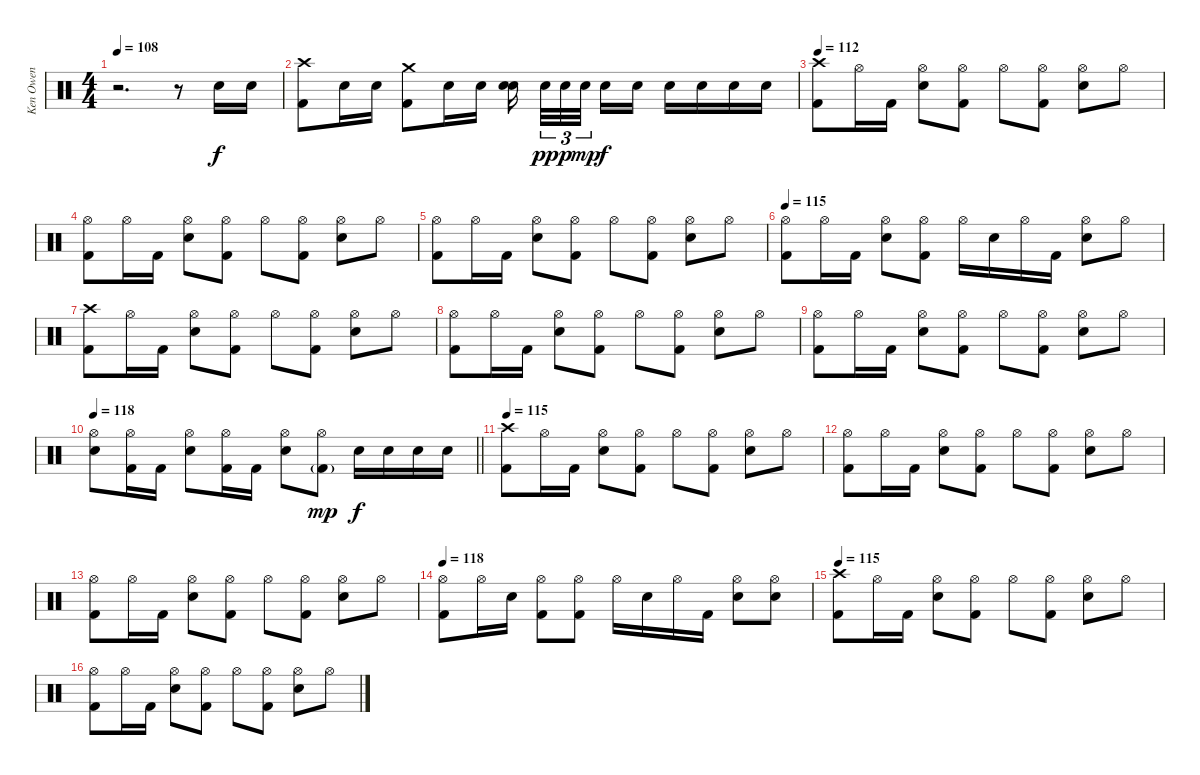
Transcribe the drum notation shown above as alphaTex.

\track ("Ken Owen" "Ken Owen") {instrument percussion}
\staff {score}
\articulation defaults
\ts (4 4)
\tempo 108
\clef neutral
\ks c
r.2{d dy f} r.8 "Electric Snare (hit)".16 "Electric Snare (hit)".16 |
("Crash high (hit)" "Kick (hit) 2").8 "Electric Snare (hit)".16 "Electric Snare (hit)".16 ("Crash medium (hit)" "Kick (hit) 2").8 "Electric Snare (hit)".16 "Electric Snare (hit)".16 ("Electric Snare (hit)" "Electric Snare (hit)").16 "Electric Snare (hit)".32{tu (3 2) dy pp} "Electric Snare (hit)".32{tu (3 2) dy p} "Electric Snare (hit)".32{tu (3 2) dy mp} "Electric Snare (hit)".16{dy f} "Electric Snare (hit)".16 "Electric Snare (hit)".16 "Electric Snare (hit)".16 "Electric Snare (hit)".16 "Electric Snare (hit)".16 |
\tempo 112
("Crash high (hit)" "Kick (hit) 2").8 "Hi-Hat (open)".16 "Kick (hit) 2".16 ("Hi-Hat (open)" "Electric Snare (hit)").8 ("Hi-Hat (open)" "Kick (hit) 2").8 "Hi-Hat (open)".8 ("Hi-Hat (open)" "Kick (hit) 2").8 ("Hi-Hat (open)" "Electric Snare (hit)").8 "Hi-Hat (open)".8 |
("Hi-Hat (open)" "Kick (hit) 2").8 "Hi-Hat (open)".16 "Kick (hit) 2".16 ("Hi-Hat (open)" "Electric Snare (hit)").8 ("Hi-Hat (open)" "Kick (hit) 2").8 "Hi-Hat (open)".8 ("Hi-Hat (open)" "Kick (hit) 2").8 ("Hi-Hat (open)" "Electric Snare (hit)").8 "Hi-Hat (open)".8 |
("Hi-Hat (open)" "Kick (hit) 2").8 "Hi-Hat (open)".16 "Kick (hit) 2".16 ("Hi-Hat (open)" "Electric Snare (hit)").8 ("Hi-Hat (open)" "Kick (hit) 2").8 "Hi-Hat (open)".8 ("Hi-Hat (open)" "Kick (hit) 2").8 ("Hi-Hat (open)" "Electric Snare (hit)").8 "Hi-Hat (open)".8 |
\tempo 115
("Hi-Hat (open)" "Kick (hit) 2").8 "Hi-Hat (open)".16 "Kick (hit) 2".16 ("Hi-Hat (open)" "Electric Snare (hit)").8 ("Hi-Hat (open)" "Kick (hit) 2").8 "Hi-Hat (open)".16 "Electric Snare (hit)".16 "Hi-Hat (open)".16 "Kick (hit) 2".16 ("Hi-Hat (open)" "Electric Snare (hit)").8 "Hi-Hat (open)".8 |
("Crash high (hit)" "Kick (hit) 2").8 "Hi-Hat (open)".16 "Kick (hit) 2".16 ("Hi-Hat (open)" "Electric Snare (hit)").8 ("Hi-Hat (open)" "Kick (hit) 2").8 "Hi-Hat (open)".8 ("Hi-Hat (open)" "Kick (hit) 2").8 ("Hi-Hat (open)" "Electric Snare (hit)").8 "Hi-Hat (open)".8 |
("Hi-Hat (open)" "Kick (hit) 2").8 "Hi-Hat (open)".16 "Kick (hit) 2".16 ("Hi-Hat (open)" "Electric Snare (hit)").8 ("Hi-Hat (open)" "Kick (hit) 2").8 "Hi-Hat (open)".8 ("Hi-Hat (open)" "Kick (hit) 2").8 ("Hi-Hat (open)" "Electric Snare (hit)").8 "Hi-Hat (open)".8 |
("Hi-Hat (open)" "Kick (hit) 2").8 "Hi-Hat (open)".16 "Kick (hit) 2".16 ("Hi-Hat (open)" "Electric Snare (hit)").8 ("Hi-Hat (open)" "Kick (hit) 2").8 "Hi-Hat (open)".8 ("Hi-Hat (open)" "Kick (hit) 2").8 ("Hi-Hat (open)" "Electric Snare (hit)").8 "Hi-Hat (open)".8 |
\tempo 118
\barLineRight lightlight
("Hi-Hat (open)" "Electric Snare (hit)").8 ("Hi-Hat (open)" "Kick (hit) 2").16 "Kick (hit) 2".16 ("Hi-Hat (open)" "Electric Snare (hit)").8 ("Hi-Hat (open)" "Kick (hit) 2").16 "Kick (hit) 2".16 ("Hi-Hat (open)" "Electric Snare (hit)").8 ("Hi-Hat (open)" "Kick (hit) 2"{g}).8{dy mp} "Electric Snare (hit)".16{dy f} "Electric Snare (hit)".16 "Electric Snare (hit)".16 "Electric Snare (hit)".16 |
\section ("" "")
\tempo 115
("Crash high (hit)" "Kick (hit) 2").8 "Hi-Hat (open)".16 "Kick (hit) 2".16 ("Hi-Hat (open)" "Electric Snare (hit)").8 ("Hi-Hat (open)" "Kick (hit) 2").8 "Hi-Hat (open)".8 ("Hi-Hat (open)" "Kick (hit) 2").8 ("Hi-Hat (open)" "Electric Snare (hit)").8 "Hi-Hat (open)".8 |
("Hi-Hat (open)" "Kick (hit) 2").8 "Hi-Hat (open)".16 "Kick (hit) 2".16 ("Hi-Hat (open)" "Electric Snare (hit)").8 ("Hi-Hat (open)" "Kick (hit) 2").8 "Hi-Hat (open)".8 ("Hi-Hat (open)" "Kick (hit) 2").8 ("Hi-Hat (open)" "Electric Snare (hit)").8 "Hi-Hat (open)".8 |
("Hi-Hat (open)" "Kick (hit) 2").8 "Hi-Hat (open)".16 "Kick (hit) 2".16 ("Hi-Hat (open)" "Electric Snare (hit)").8 ("Hi-Hat (open)" "Kick (hit) 2").8 "Hi-Hat (open)".8 ("Hi-Hat (open)" "Kick (hit) 2").8 ("Hi-Hat (open)" "Electric Snare (hit)").8 "Hi-Hat (open)".8 |
\tempo 118
("Hi-Hat (open)" "Kick (hit) 2").8 "Hi-Hat (open)".16 "Electric Snare (hit)".16 ("Hi-Hat (open)" "Kick (hit) 2").8 ("Hi-Hat (open)" "Kick (hit) 2").8 "Hi-Hat (open)".16 "Electric Snare (hit)".16 "Hi-Hat (open)".16 "Kick (hit) 2".16 ("Hi-Hat (open)" "Electric Snare (hit)").8 ("Hi-Hat (open)" "Electric Snare (hit)").8 |
\tempo 115
("Crash high (hit)" "Kick (hit) 2").8 "Hi-Hat (open)".16 "Kick (hit) 2".16 ("Hi-Hat (open)" "Electric Snare (hit)").8 ("Hi-Hat (open)" "Kick (hit) 2").8 "Hi-Hat (open)".8 ("Hi-Hat (open)" "Kick (hit) 2").8 ("Hi-Hat (open)" "Electric Snare (hit)").8 "Hi-Hat (open)".8 |
("Hi-Hat (open)" "Kick (hit) 2").8 "Hi-Hat (open)".16 "Kick (hit) 2".16 ("Hi-Hat (open)" "Electric Snare (hit)").8 ("Hi-Hat (open)" "Kick (hit) 2").8 "Hi-Hat (open)".8 ("Hi-Hat (open)" "Kick (hit) 2").8 ("Hi-Hat (open)" "Electric Snare (hit)").8 "Hi-Hat (open)".8
